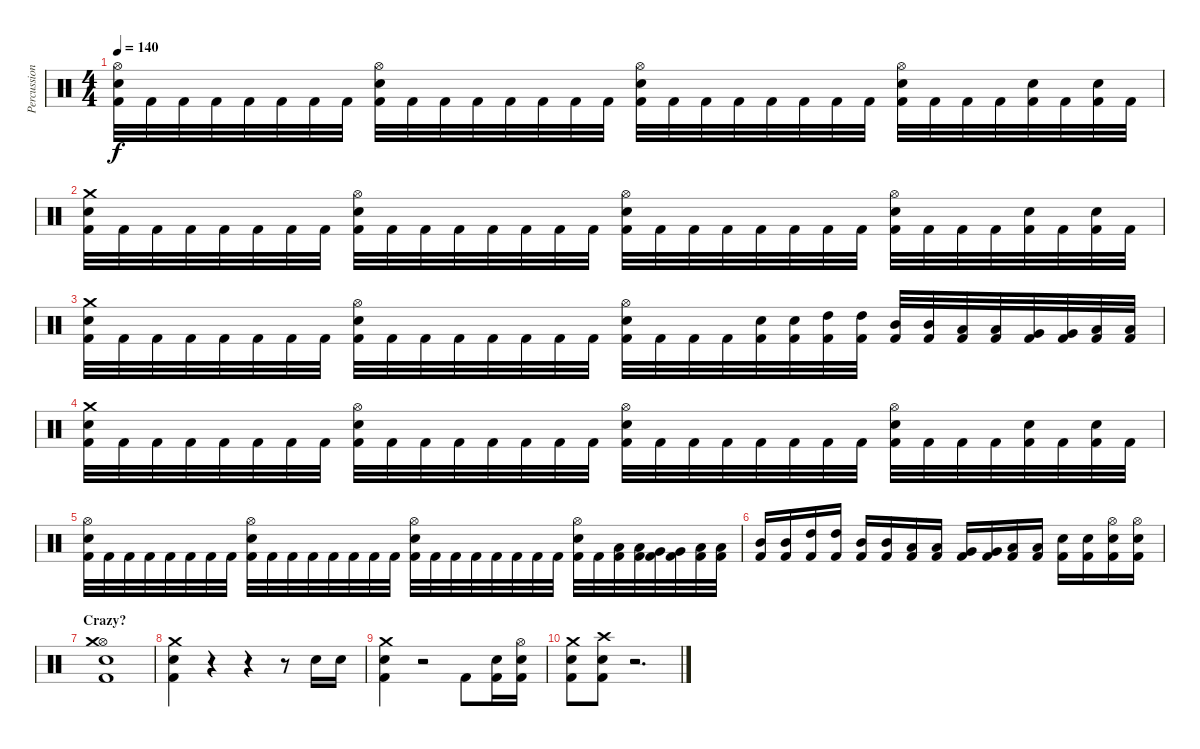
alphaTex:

\track ("Percussion" "Percussion") {instrument percussion}
\staff {score}
\articulation defaults
\ts (4 4)
\tempo 140
\clef neutral
\ks c
("Hi-Hat (open)" "Snare (hit) 2" "Kick (hit) 2").32{dy f} "Kick (hit) 2".32 "Kick (hit) 2".32 "Kick (hit) 2".32 "Kick (hit) 2".32 "Kick (hit) 2".32 "Kick (hit) 2".32 "Kick (hit) 2".32 ("Hi-Hat (open)" "Snare (hit) 2" "Kick (hit) 2").32 "Kick (hit) 2".32 "Kick (hit) 2".32 "Kick (hit) 2".32 "Kick (hit) 2".32 "Kick (hit) 2".32 "Kick (hit) 2".32 "Kick (hit) 2".32 ("Hi-Hat (open)" "Snare (hit) 2" "Kick (hit) 2").32 "Kick (hit) 2".32 "Kick (hit) 2".32 "Kick (hit) 2".32 "Kick (hit) 2".32 "Kick (hit) 2".32 "Kick (hit) 2".32 "Kick (hit) 2".32 ("Hi-Hat (open)" "Snare (hit) 2" "Kick (hit) 2").32 "Kick (hit) 2".32 "Kick (hit) 2".32 "Kick (hit) 2".32 ("Snare (hit) 2" "Kick (hit) 2").32 "Kick (hit) 2".32 ("Snare (hit) 2" "Kick (hit) 2").32 "Kick (hit) 2".32 |
("Crash medium (hit)" "Snare (hit) 2" "Kick (hit) 2").32 "Kick (hit) 2".32 "Kick (hit) 2".32 "Kick (hit) 2".32 "Kick (hit) 2".32 "Kick (hit) 2".32 "Kick (hit) 2".32 "Kick (hit) 2".32 ("Hi-Hat (open)" "Snare (hit) 2" "Kick (hit) 2").32 "Kick (hit) 2".32 "Kick (hit) 2".32 "Kick (hit) 2".32 "Kick (hit) 2".32 "Kick (hit) 2".32 "Kick (hit) 2".32 "Kick (hit) 2".32 ("Hi-Hat (open)" "Snare (hit) 2" "Kick (hit) 2").32 "Kick (hit) 2".32 "Kick (hit) 2".32 "Kick (hit) 2".32 "Kick (hit) 2".32 "Kick (hit) 2".32 "Kick (hit) 2".32 "Kick (hit) 2".32 ("Hi-Hat (open)" "Snare (hit) 2" "Kick (hit) 2").32 "Kick (hit) 2".32 "Kick (hit) 2".32 "Kick (hit) 2".32 ("Snare (hit) 2" "Kick (hit) 2").32 "Kick (hit) 2".32 ("Snare (hit) 2" "Kick (hit) 2").32 "Kick (hit) 2".32 |
("Crash medium (hit)" "Snare (hit) 2" "Kick (hit) 2").32 "Kick (hit) 2".32 "Kick (hit) 2".32 "Kick (hit) 2".32 "Kick (hit) 2".32 "Kick (hit) 2".32 "Kick (hit) 2".32 "Kick (hit) 2".32 ("Hi-Hat (open)" "Snare (hit) 2" "Kick (hit) 2").32 "Kick (hit) 2".32 "Kick (hit) 2".32 "Kick (hit) 2".32 "Kick (hit) 2".32 "Kick (hit) 2".32 "Kick (hit) 2".32 "Kick (hit) 2".32 ("Hi-Hat (open)" "Snare (hit) 2" "Kick (hit) 2").32 "Kick (hit) 2".32 "Kick (hit) 2".32 "Kick (hit) 2".32 ("Snare (hit) 2" "Kick (hit) 2").32 ("Snare (hit) 2" "Kick (hit) 2").32 ("High Tom (hit)" "Kick (hit) 2").32 ("High Tom (hit)" "Kick (hit) 2").32 ("Mid Tom (hit)" "Kick (hit) 2").32 ("Mid Tom (hit)" "Kick (hit) 2").32 ("Low Tom (hit)" "Kick (hit) 2").32 ("Low Tom (hit)" "Kick (hit) 2").32 ("Very Low Tom (hit)" "Kick (hit) 2").32 ("Very Low Tom (hit)" "Kick (hit) 2").32 ("Low Floor Tom (hit)" "Kick (hit) 2").32 ("Low Floor Tom (hit)" "Kick (hit) 2").32 |
("Crash medium (hit)" "Snare (hit) 2" "Kick (hit) 2").32 "Kick (hit) 2".32 "Kick (hit) 2".32 "Kick (hit) 2".32 "Kick (hit) 2".32 "Kick (hit) 2".32 "Kick (hit) 2".32 "Kick (hit) 2".32 ("Hi-Hat (open)" "Snare (hit) 2" "Kick (hit) 2").32 "Kick (hit) 2".32 "Kick (hit) 2".32 "Kick (hit) 2".32 "Kick (hit) 2".32 "Kick (hit) 2".32 "Kick (hit) 2".32 "Kick (hit) 2".32 ("Hi-Hat (open)" "Snare (hit) 2" "Kick (hit) 2").32 "Kick (hit) 2".32 "Kick (hit) 2".32 "Kick (hit) 2".32 "Kick (hit) 2".32 "Kick (hit) 2".32 "Kick (hit) 2".32 "Kick (hit) 2".32 ("Hi-Hat (open)" "Snare (hit) 2" "Kick (hit) 2").32 "Kick (hit) 2".32 "Kick (hit) 2".32 "Kick (hit) 2".32 ("Snare (hit) 2" "Kick (hit) 2").32 "Kick (hit) 2".32 ("Snare (hit) 2" "Kick (hit) 2").32 "Kick (hit) 2".32 |
("Hi-Hat (open)" "Snare (hit) 2" "Kick (hit) 2").32 "Kick (hit) 2".32 "Kick (hit) 2".32 "Kick (hit) 2".32 "Kick (hit) 2".32 "Kick (hit) 2".32 "Kick (hit) 2".32 "Kick (hit) 2".32 ("Hi-Hat (open)" "Snare (hit) 2" "Kick (hit) 2").32 "Kick (hit) 2".32 "Kick (hit) 2".32 "Kick (hit) 2".32 "Kick (hit) 2".32 "Kick (hit) 2".32 "Kick (hit) 2".32 "Kick (hit) 2".32 ("Hi-Hat (open)" "Snare (hit) 2" "Kick (hit) 2").32 "Kick (hit) 2".32 "Kick (hit) 2".32 "Kick (hit) 2".32 "Kick (hit) 2".32 "Kick (hit) 2".32 "Kick (hit) 2".32 "Kick (hit) 2".32 ("Hi-Hat (open)" "Snare (hit) 2" "Kick (hit) 2").32 "Kick (hit) 2".32 ("Low Floor Tom (hit)" "Kick (hit) 2").32 ("Low Floor Tom (hit)" "Kick (hit) 2").32 ("Very Low Tom (hit)" "Kick (hit) 2").32 ("Very Low Tom (hit)" "Kick (hit) 2").32 ("Low Tom (hit)" "Kick (hit) 2").32 ("Low Tom (hit)" "Kick (hit) 2").32 |
("Mid Tom (hit)" "Kick (hit) 2").16 ("Mid Tom (hit)" "Kick (hit) 2").16 ("High Tom (hit)" "Kick (hit) 2").16 ("High Tom (hit)" "Kick (hit) 2").16 ("Mid Tom (hit)" "Kick (hit) 2").16 ("Mid Tom (hit)" "Kick (hit) 2").16 ("Low Tom (hit)" "Kick (hit) 2").16 ("Low Tom (hit)" "Kick (hit) 2").16 ("Very Low Tom (hit)" "Kick (hit) 2").16 ("Very Low Tom (hit)" "Kick (hit) 2").16 ("Low Floor Tom (hit)" "Kick (hit) 2").16 ("Low Floor Tom (hit)" "Kick (hit) 2").16 ("Snare (hit) 2" "Kick (hit) 2").16 ("Snare (hit) 2" "Kick (hit) 2").16 ("Hi-Hat (open)" "Snare (hit) 2" "Kick (hit) 2").16 ("Hi-Hat (open)" "Snare (hit) 2" "Kick (hit) 2").16 |
\section ("" "Crazy?")
("Hi-Hat (open)" "Crash medium (hit)" "Snare (hit) 2" "Kick (hit) 2").1 |
("Crash medium (hit)" "Snare (hit) 2" "Kick (hit) 2").4 r.4 r.4 r.8 "Snare (hit) 2".16 "Snare (hit) 2".16 |
("Crash medium (hit)" "Snare (hit) 2" "Kick (hit) 2").4 r.2 "Kick (hit) 2".8 ("Snare (hit) 2" "Kick (hit) 2").16 ("Hi-Hat (open)" "Snare (hit) 2" "Kick (hit) 2").16 |
("Crash medium (hit)" "Snare (hit) 2" "Kick (hit) 2").8 ("Crash high (hit)" "Snare (hit) 2" "Kick (hit) 2").8 r.2{d}
